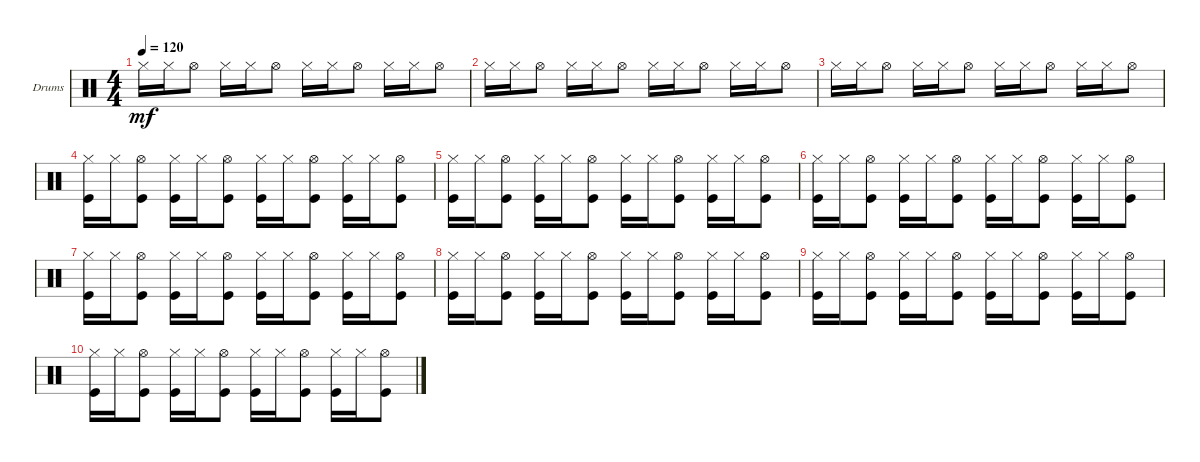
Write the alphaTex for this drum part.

\defaultSystemsLayout 4
\bracketExtendMode groupsimilarinstruments
\firstSystemTrackNameOrientation horizontal
\otherSystemsTrackNameOrientation horizontal
\track ("Drumkit" "Drums") {instrument percussion}
\staff {score}
\articulation defaults
\ts (4 4)
\tempo 120
\clef neutral
\ks c "Hi-Hat (closed)".16{dy mf} "Hi-Hat (closed)".16 "Hi-Hat (open)".8 "Hi-Hat (closed)".16 "Hi-Hat (closed)".16 "Hi-Hat (open)".8 "Hi-Hat (closed)".16 "Hi-Hat (closed)".16 "Hi-Hat (open)".8 "Hi-Hat (closed)".16 "Hi-Hat (closed)".16 "Hi-Hat (open)".8
|
"Hi-Hat (closed)".16 "Hi-Hat (closed)".16 "Hi-Hat (open)".8 "Hi-Hat (closed)".16 "Hi-Hat (closed)".16 "Hi-Hat (open)".8 "Hi-Hat (closed)".16 "Hi-Hat (closed)".16 "Hi-Hat (open)".8 "Hi-Hat (closed)".16 "Hi-Hat (closed)".16 "Hi-Hat (open)".8 |
\scale
0.474178 "Hi-Hat (closed)".16 "Hi-Hat (closed)".16 "Hi-Hat (open)".8 "Hi-Hat (closed)".16 "Hi-Hat (closed)".16 "Hi-Hat (open)".8 "Hi-Hat (closed)".16 "Hi-Hat (closed)".16 "Hi-Hat (open)".8 "Hi-Hat (closed)".16 "Hi-Hat (closed)".16 "Hi-Hat (open)".8 |
\scale
0.262911 ("Hi-Hat (closed)" "Kick (hit)").16 "Hi-Hat (closed)".16 ("Hi-Hat (open)" "Kick (hit)").8 ("Hi-Hat (closed)" "Kick (hit)").16 "Hi-Hat (closed)".16 ("Hi-Hat (open)" "Kick (hit)").8 ("Hi-Hat (closed)" "Kick (hit)").16 "Hi-Hat (closed)".16 ("Hi-Hat (open)" "Kick (hit)").8 ("Hi-Hat (closed)" "Kick (hit)").16 "Hi-Hat (closed)".16 ("Hi-Hat (open)" "Kick (hit)").8 |
\scale
0.262911 ("Hi-Hat (closed)" "Kick (hit)").16 "Hi-Hat (closed)".16 ("Hi-Hat (open)" "Kick (hit)").8 ("Hi-Hat (closed)" "Kick (hit)").16 "Hi-Hat (closed)".16 ("Hi-Hat (open)" "Kick (hit)").8 ("Hi-Hat (closed)" "Kick (hit)").16 "Hi-Hat (closed)".16 ("Hi-Hat (open)" "Kick (hit)").8 ("Hi-Hat (closed)" "Kick (hit)").16 "Hi-Hat (closed)".16 ("Hi-Hat (open)" "Kick (hit)").8 |
\scale
0.333333 ("Hi-Hat (closed)" "Kick (hit)").16 "Hi-Hat (closed)".16 ("Hi-Hat (open)" "Kick (hit)").8 ("Hi-Hat (closed)" "Kick (hit)").16 "Hi-Hat (closed)".16 ("Hi-Hat (open)" "Kick (hit)").8 ("Hi-Hat (closed)" "Kick (hit)").16 "Hi-Hat (closed)".16 ("Hi-Hat (open)" "Kick (hit)").8 ("Hi-Hat (closed)" "Kick (hit)").16 "Hi-Hat (closed)".16 ("Hi-Hat (open)" "Kick (hit)").8 |
\scale
0.333333 ("Hi-Hat (closed)" "Kick (hit)").16 "Hi-Hat (closed)".16 ("Hi-Hat (open)" "Kick (hit)").8 ("Hi-Hat (closed)" "Kick (hit)").16 "Hi-Hat (closed)".16 ("Hi-Hat (open)" "Kick (hit)").8 ("Hi-Hat (closed)" "Kick (hit)").16 "Hi-Hat (closed)".16 ("Hi-Hat (open)" "Kick (hit)").8 ("Hi-Hat (closed)" "Kick (hit)").16 "Hi-Hat (closed)".16 ("Hi-Hat (open)" "Kick (hit)").8 |
\scale
0.333333 ("Hi-Hat (closed)" "Kick (hit)").16 "Hi-Hat (closed)".16 ("Hi-Hat (open)" "Kick (hit)").8 ("Hi-Hat (closed)" "Kick (hit)").16 "Hi-Hat (closed)".16 ("Hi-Hat (open)" "Kick (hit)").8 ("Hi-Hat (closed)" "Kick (hit)").16 "Hi-Hat (closed)".16 ("Hi-Hat (open)" "Kick (hit)").8 ("Hi-Hat (closed)" "Kick (hit)").16 "Hi-Hat (closed)".16 ("Hi-Hat (open)" "Kick (hit)").8 |
\scale
0.333333 ("Hi-Hat (closed)" "Kick (hit)").16 "Hi-Hat (closed)".16 ("Hi-Hat (open)" "Kick (hit)").8 ("Hi-Hat (closed)" "Kick (hit)").16 "Hi-Hat (closed)".16 ("Hi-Hat (open)" "Kick (hit)").8 ("Hi-Hat (closed)" "Kick (hit)").16 "Hi-Hat (closed)".16 ("Hi-Hat (open)" "Kick (hit)").8 ("Hi-Hat (closed)" "Kick (hit)").16 "Hi-Hat (closed)".16 ("Hi-Hat (open)" "Kick (hit)").8 |
\scale
0.333333 ("Hi-Hat (closed)" "Kick (hit)").16 "Hi-Hat (closed)".16 ("Hi-Hat (open)" "Kick (hit)").8 ("Hi-Hat (closed)" "Kick (hit)").16 "Hi-Hat (closed)".16 ("Hi-Hat (open)" "Kick (hit)").8 ("Hi-Hat (closed)" "Kick (hit)").16 "Hi-Hat (closed)".16 ("Hi-Hat (open)" "Kick (hit)").8 ("Hi-Hat (closed)" "Kick (hit)").16 "Hi-Hat (closed)".16 ("Hi-Hat (open)" "Kick (hit)").8 |
\scale
0.333333 |
\scale
0.333333 |
\scale
0.333333 |
\scale
0.333333 |
\scale
0.333333 |
\scale
0.333333
